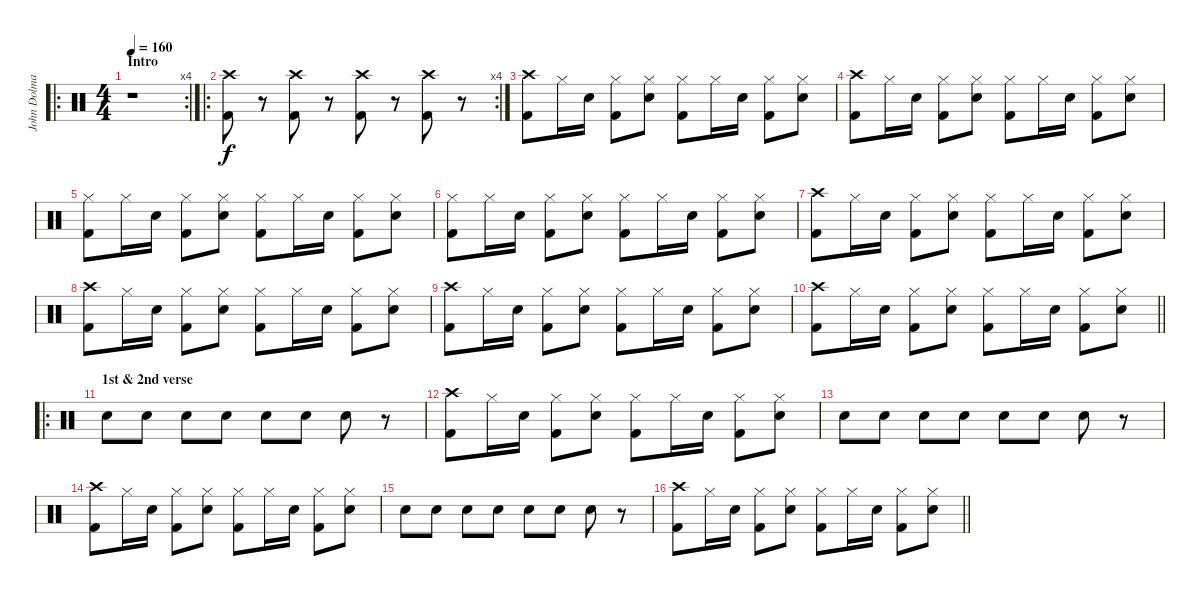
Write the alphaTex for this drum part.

\track ("John Dolmayan" "John Dolma") {instrument percussion}
\staff {score}
\articulation defaults
\ro
\rc 4
\ts (4 4)
\section ("" "Intro")
\tempo 160
\clef neutral
\ks c
r.1{dy f} |
\ro
\rc 4
("Crash high (hit)" "Kick (hit) 2").8 r.8 ("Crash high (hit)" "Kick (hit) 2").8 r.8 ("Crash high (hit)" "Kick (hit) 2").8 r.8 ("Crash high (hit)" "Kick (hit) 2").8 r.8 |
("Crash high (hit)" "Kick (hit) 2").8 "Hi-Hat (closed)".16 "Electric Snare (hit)".16 ("Hi-Hat (closed)" "Kick (hit) 2").8 ("Hi-Hat (closed)" "Electric Snare (hit)").8 ("Hi-Hat (closed)" "Kick (hit) 2").8 "Hi-Hat (closed)".16 "Electric Snare (hit)".16 ("Hi-Hat (closed)" "Kick (hit) 2").8 ("Hi-Hat (closed)" "Electric Snare (hit)").8 |
("Crash high (hit)" "Kick (hit) 2").8 "Hi-Hat (closed)".16 "Electric Snare (hit)".16 ("Hi-Hat (closed)" "Kick (hit) 2").8 ("Hi-Hat (closed)" "Electric Snare (hit)").8 ("Hi-Hat (closed)" "Kick (hit) 2").8 "Hi-Hat (closed)".16 "Electric Snare (hit)".16 ("Hi-Hat (closed)" "Kick (hit) 2").8 ("Hi-Hat (closed)" "Electric Snare (hit)").8 |
("Hi-Hat (closed)" "Kick (hit) 2").8 "Hi-Hat (closed)".16 "Electric Snare (hit)".16 ("Hi-Hat (closed)" "Kick (hit) 2").8 ("Hi-Hat (closed)" "Electric Snare (hit)").8 ("Hi-Hat (closed)" "Kick (hit) 2").8 "Hi-Hat (closed)".16 "Electric Snare (hit)".16 ("Hi-Hat (closed)" "Kick (hit) 2").8 ("Hi-Hat (closed)" "Electric Snare (hit)").8 |
("Hi-Hat (closed)" "Kick (hit) 2").8 "Hi-Hat (closed)".16 "Electric Snare (hit)".16 ("Hi-Hat (closed)" "Kick (hit) 2").8 ("Hi-Hat (closed)" "Electric Snare (hit)").8 ("Hi-Hat (closed)" "Kick (hit) 2").8 "Hi-Hat (closed)".16 "Electric Snare (hit)".16 ("Hi-Hat (closed)" "Kick (hit) 2").8 ("Hi-Hat (closed)" "Electric Snare (hit)").8 |
("Crash high (hit)" "Kick (hit) 2").8 "Hi-Hat (closed)".16 "Electric Snare (hit)".16 ("Hi-Hat (closed)" "Kick (hit) 2").8 ("Hi-Hat (closed)" "Electric Snare (hit)").8 ("Hi-Hat (closed)" "Kick (hit) 2").8 "Hi-Hat (closed)".16 "Electric Snare (hit)".16 ("Hi-Hat (closed)" "Kick (hit) 2").8 ("Hi-Hat (closed)" "Electric Snare (hit)").8 |
("Crash high (hit)" "Kick (hit) 2").8 "Hi-Hat (closed)".16 "Electric Snare (hit)".16 ("Hi-Hat (closed)" "Kick (hit) 2").8 ("Hi-Hat (closed)" "Electric Snare (hit)").8 ("Hi-Hat (closed)" "Kick (hit) 2").8 "Hi-Hat (closed)".16 "Electric Snare (hit)".16 ("Hi-Hat (closed)" "Kick (hit) 2").8 ("Hi-Hat (closed)" "Electric Snare (hit)").8 |
("Crash high (hit)" "Kick (hit) 2").8 "Hi-Hat (closed)".16 "Electric Snare (hit)".16 ("Hi-Hat (closed)" "Kick (hit) 2").8 ("Hi-Hat (closed)" "Electric Snare (hit)").8 ("Hi-Hat (closed)" "Kick (hit) 2").8 "Hi-Hat (closed)".16 "Electric Snare (hit)".16 ("Hi-Hat (closed)" "Kick (hit) 2").8 ("Hi-Hat (closed)" "Electric Snare (hit)").8 |
\barLineRight lightlight
("Crash high (hit)" "Kick (hit) 2").8 "Hi-Hat (closed)".16 "Electric Snare (hit)".16 ("Hi-Hat (closed)" "Kick (hit) 2").8 ("Hi-Hat (closed)" "Electric Snare (hit)").8 ("Hi-Hat (closed)" "Kick (hit) 2").8 "Hi-Hat (closed)".16 "Electric Snare (hit)".16 ("Hi-Hat (closed)" "Kick (hit) 2").8 ("Hi-Hat (closed)" "Electric Snare (hit)").8 |
\ro
\section ("" "1st & 2nd verse")
"Electric Snare (hit)".8 "Electric Snare (hit)".8 "Electric Snare (hit)".8 "Electric Snare (hit)".8 "Electric Snare (hit)".8 "Electric Snare (hit)".8 "Electric Snare (hit)".8 r.8 |
("Crash high (hit)" "Kick (hit) 2").8 "Hi-Hat (closed)".16 "Electric Snare (hit)".16 ("Hi-Hat (closed)" "Kick (hit) 2").8 ("Hi-Hat (closed)" "Electric Snare (hit)").8 ("Hi-Hat (closed)" "Kick (hit) 2").8 "Hi-Hat (closed)".16 "Electric Snare (hit)".16 ("Hi-Hat (closed)" "Kick (hit) 2").8 ("Hi-Hat (closed)" "Electric Snare (hit)").8 |
"Electric Snare (hit)".8 "Electric Snare (hit)".8 "Electric Snare (hit)".8 "Electric Snare (hit)".8 "Electric Snare (hit)".8 "Electric Snare (hit)".8 "Electric Snare (hit)".8 r.8 |
("Crash high (hit)" "Kick (hit) 2").8 "Hi-Hat (closed)".16 "Electric Snare (hit)".16 ("Hi-Hat (closed)" "Kick (hit) 2").8 ("Hi-Hat (closed)" "Electric Snare (hit)").8 ("Hi-Hat (closed)" "Kick (hit) 2").8 "Hi-Hat (closed)".16 "Electric Snare (hit)".16 ("Hi-Hat (closed)" "Kick (hit) 2").8 ("Hi-Hat (closed)" "Electric Snare (hit)").8 |
"Electric Snare (hit)".8 "Electric Snare (hit)".8 "Electric Snare (hit)".8 "Electric Snare (hit)".8 "Electric Snare (hit)".8 "Electric Snare (hit)".8 "Electric Snare (hit)".8 r.8 |
\barLineRight lightlight
("Crash high (hit)" "Kick (hit) 2").8 "Hi-Hat (closed)".16 "Electric Snare (hit)".16 ("Hi-Hat (closed)" "Kick (hit) 2").8 ("Hi-Hat (closed)" "Electric Snare (hit)").8 ("Hi-Hat (closed)" "Kick (hit) 2").8 "Hi-Hat (closed)".16 "Electric Snare (hit)".16 ("Hi-Hat (closed)" "Kick (hit) 2").8 ("Hi-Hat (closed)" "Electric Snare (hit)").8
